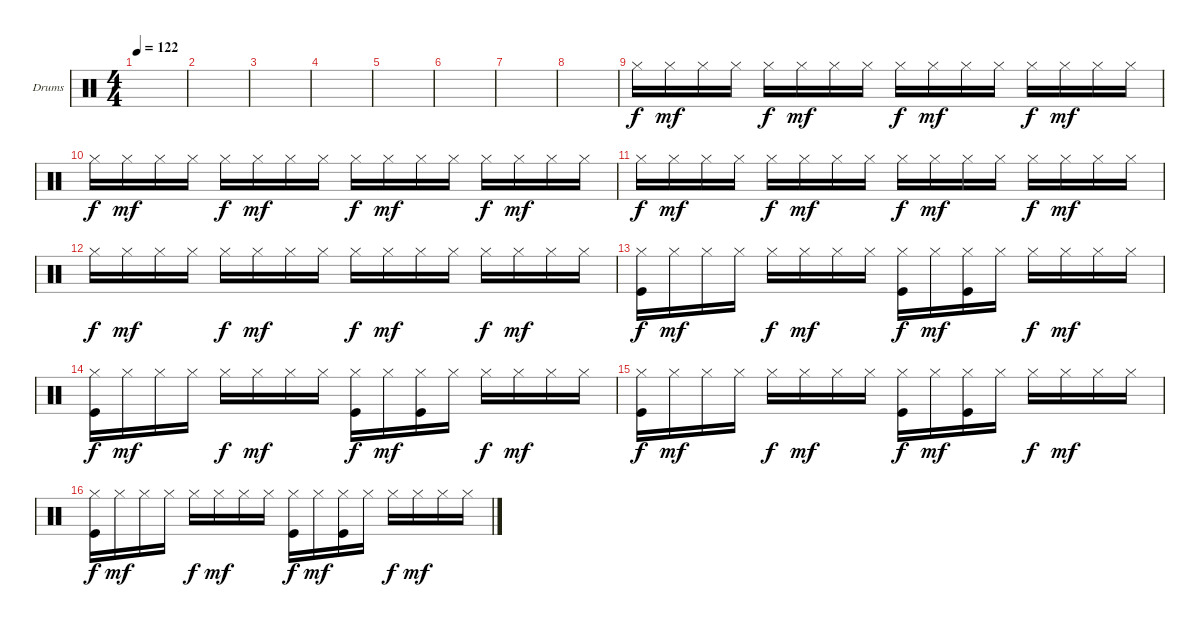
\defaultSystemsLayout 4
\bracketExtendMode groupsimilarinstruments
\firstSystemTrackNameOrientation horizontal
\otherSystemsTrackNameOrientation horizontal
\track ("Drumkit" "Drums") {instrument percussion}
\staff {score}
\articulation defaults
\ts (4 4)
\tempo 122
\clef neutral
\scale
0.472222
\ks c
|
\scale
0.263889 |
\scale
0.263889 |
\scale
0.333333 |
\scale
0.333333 |
\scale
0.333333 |
|
|
"Hi-Hat (closed)".16 "Hi-Hat (closed)".16{dy mf} "Hi-Hat (closed)".16 "Hi-Hat (closed)".16 "Hi-Hat (closed)".16{dy f} "Hi-Hat (closed)".16{dy mf} "Hi-Hat (closed)".16 "Hi-Hat (closed)".16 "Hi-Hat (closed)".16{dy f} "Hi-Hat (closed)".16{dy mf} "Hi-Hat (closed)".16 "Hi-Hat (closed)".16 "Hi-Hat (closed)".16{dy f} "Hi-Hat (closed)".16{dy mf} "Hi-Hat (closed)".16 "Hi-Hat (closed)".16 |
"Hi-Hat (closed)".16{dy f} "Hi-Hat (closed)".16{dy mf} "Hi-Hat (closed)".16 "Hi-Hat (closed)".16 "Hi-Hat (closed)".16{dy f} "Hi-Hat (closed)".16{dy mf} "Hi-Hat (closed)".16 "Hi-Hat (closed)".16 "Hi-Hat (closed)".16{dy f} "Hi-Hat (closed)".16{dy mf} "Hi-Hat (closed)".16 "Hi-Hat (closed)".16 "Hi-Hat (closed)".16{dy f} "Hi-Hat (closed)".16{dy mf} "Hi-Hat (closed)".16 "Hi-Hat (closed)".16 |
"Hi-Hat (closed)".16{dy f} "Hi-Hat (closed)".16{dy mf} "Hi-Hat (closed)".16 "Hi-Hat (closed)".16 "Hi-Hat (closed)".16{dy f} "Hi-Hat (closed)".16{dy mf} "Hi-Hat (closed)".16 "Hi-Hat (closed)".16 "Hi-Hat (closed)".16{dy f} "Hi-Hat (closed)".16{dy mf} "Hi-Hat (closed)".16 "Hi-Hat (closed)".16 "Hi-Hat (closed)".16{dy f} "Hi-Hat (closed)".16{dy mf} "Hi-Hat (closed)".16 "Hi-Hat (closed)".16 |
"Hi-Hat (closed)".16{dy f} "Hi-Hat (closed)".16{dy mf} "Hi-Hat (closed)".16 "Hi-Hat (closed)".16 "Hi-Hat (closed)".16{dy f} "Hi-Hat (closed)".16{dy mf} "Hi-Hat (closed)".16 "Hi-Hat (closed)".16 "Hi-Hat (closed)".16{dy f} "Hi-Hat (closed)".16{dy mf} "Hi-Hat (closed)".16 "Hi-Hat (closed)".16 "Hi-Hat (closed)".16{dy f} "Hi-Hat (closed)".16{dy mf} "Hi-Hat (closed)".16 "Hi-Hat (closed)".16 |
("Hi-Hat (closed)" "Kick (hit)").16{dy f} "Hi-Hat (closed)".16{dy mf} "Hi-Hat (closed)".16 "Hi-Hat (closed)".16 "Hi-Hat (closed)".16{dy f} "Hi-Hat (closed)".16{dy mf} "Hi-Hat (closed)".16 "Hi-Hat (closed)".16 ("Hi-Hat (closed)" "Kick (hit)").16{dy f} "Hi-Hat (closed)".16{dy mf} ("Hi-Hat (closed)" "Kick (hit)").16 "Hi-Hat (closed)".16 "Hi-Hat (closed)".16{dy f} "Hi-Hat (closed)".16{dy mf} "Hi-Hat (closed)".16 "Hi-Hat (closed)".16 |
("Hi-Hat (closed)" "Kick (hit)").16{dy f} "Hi-Hat (closed)".16{dy mf} "Hi-Hat (closed)".16 "Hi-Hat (closed)".16 "Hi-Hat (closed)".16{dy f} "Hi-Hat (closed)".16{dy mf} "Hi-Hat (closed)".16 "Hi-Hat (closed)".16 ("Hi-Hat (closed)" "Kick (hit)").16{dy f} "Hi-Hat (closed)".16{dy mf} ("Hi-Hat (closed)" "Kick (hit)").16 "Hi-Hat (closed)".16 "Hi-Hat (closed)".16{dy f} "Hi-Hat (closed)".16{dy mf} "Hi-Hat (closed)".16 "Hi-Hat (closed)".16 |
("Hi-Hat (closed)" "Kick (hit)").16{dy f} "Hi-Hat (closed)".16{dy mf} "Hi-Hat (closed)".16 "Hi-Hat (closed)".16 "Hi-Hat (closed)".16{dy f} "Hi-Hat (closed)".16{dy mf} "Hi-Hat (closed)".16 "Hi-Hat (closed)".16 ("Hi-Hat (closed)" "Kick (hit)").16{dy f} "Hi-Hat (closed)".16{dy mf} ("Hi-Hat (closed)" "Kick (hit)").16 "Hi-Hat (closed)".16 "Hi-Hat (closed)".16{dy f} "Hi-Hat (closed)".16{dy mf} "Hi-Hat (closed)".16 "Hi-Hat (closed)".16 |
("Hi-Hat (closed)" "Kick (hit)").16{dy f} "Hi-Hat (closed)".16{dy mf} "Hi-Hat (closed)".16 "Hi-Hat (closed)".16 "Hi-Hat (closed)".16{dy f} "Hi-Hat (closed)".16{dy mf} "Hi-Hat (closed)".16 "Hi-Hat (closed)".16 ("Hi-Hat (closed)" "Kick (hit)").16{dy f} "Hi-Hat (closed)".16{dy mf} ("Hi-Hat (closed)" "Kick (hit)").16 "Hi-Hat (closed)".16 "Hi-Hat (closed)".16{dy f} "Hi-Hat (closed)".16{dy mf} "Hi-Hat (closed)".16 "Hi-Hat (closed)".16
